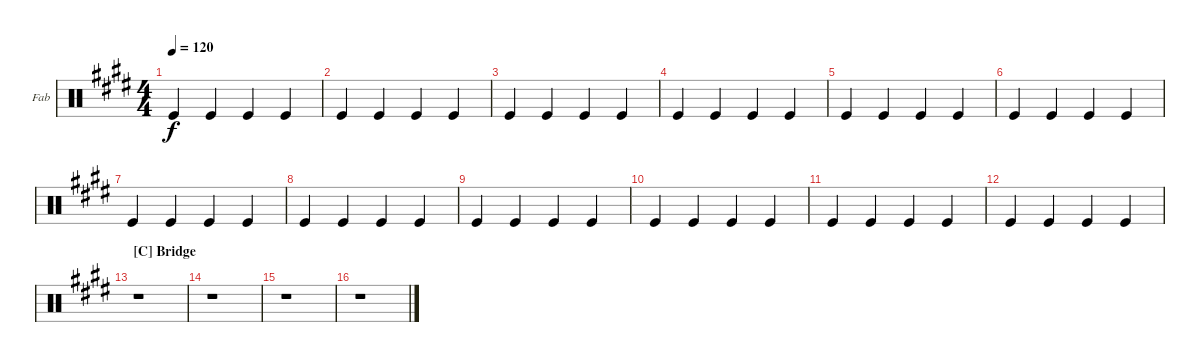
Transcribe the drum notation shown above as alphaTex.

\bracketExtendMode groupsimilarinstruments
\firstSystemTrackNameOrientation horizontal
\otherSystemsTrackNameOrientation horizontal
\track ("Tambourine" "Fab") {instrument percussion}
\staff {score}
\articulation defaults
\ts (4 4)
\tempo 120
\clef neutral
\ks e "Kick (hit)".4{dy f} "Kick (hit)".4 "Kick (hit)".4 "Kick (hit)".4
|
"Kick (hit)".4 "Kick (hit)".4 "Kick (hit)".4 "Kick (hit)".4 |
"Kick (hit)".4 "Kick (hit)".4 "Kick (hit)".4 "Kick (hit)".4 |
"Kick (hit)".4 "Kick (hit)".4 "Kick (hit)".4 "Kick (hit)".4 |
"Kick (hit)".4 "Kick (hit)".4 "Kick (hit)".4 "Kick (hit)".4 |
"Kick (hit)".4 "Kick (hit)".4 "Kick (hit)".4 "Kick (hit)".4 |
"Kick (hit)".4 "Kick (hit)".4 "Kick (hit)".4 "Kick (hit)".4 |
"Kick (hit)".4 "Kick (hit)".4 "Kick (hit)".4 "Kick (hit)".4 |
"Kick (hit)".4 "Kick (hit)".4 "Kick (hit)".4 "Kick (hit)".4 |
"Kick (hit)".4 "Kick (hit)".4 "Kick (hit)".4 "Kick (hit)".4 |
"Kick (hit)".4 "Kick (hit)".4 "Kick (hit)".4 "Kick (hit)".4 |
"Kick (hit)".4 "Kick (hit)".4 "Kick (hit)".4 "Kick (hit)".4 |
\section ("C" "Bridge")
r.1 |
r.1 |
r.1 |
r.1
